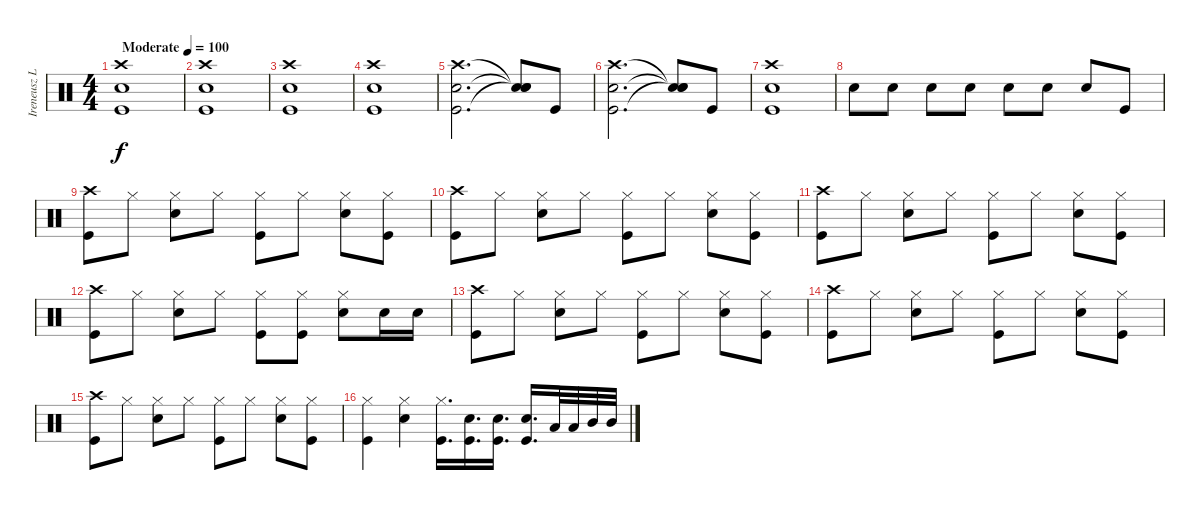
\track ("Ireneusz Loth" "Ireneusz L") {instrument percussion}
\staff {score}
\articulation defaults
\ts (4 4)
\tempo (100 "Moderate")
\clef neutral
\ks c
("Crash high (hit)" "Snare (hit) 2" "Kick (hit)").1{dy f} |
("Crash high (hit)" "Snare (hit) 2" "Kick (hit)").1 |
("Crash high (hit)" "Snare (hit) 2" "Kick (hit)").1 |
("Crash high (hit)" "Snare (hit) 2" "Kick (hit)").1 |
("Crash high (hit)" "Snare (hit) 2" "Kick (hit)").2{d} ("Snare (hit)"{t} "Snare (hit)"{t} "Snare (hit)"{t}).8 "Kick (hit)".8 |
("Crash high (hit)" "Snare (hit) 2" "Kick (hit)").2{d} ("Snare (hit)"{t} "Snare (hit)"{t} "Snare (hit)"{t}).8 "Kick (hit)".8 |
("Crash high (hit)" "Snare (hit) 2" "Kick (hit)").1 |
"Snare (hit) 2".8 "Snare (hit) 2".8 "Snare (hit) 2".8 "Snare (hit) 2".8 "Snare (hit) 2".8 "Snare (hit) 2".8 "Snare (hit) 2".8 "Kick (hit)".8 |
("Crash high (hit)" "Kick (hit)").8 "Hi-Hat (closed)".8 ("Hi-Hat (closed)" "Snare (hit) 2").8 "Hi-Hat (closed)".8 ("Hi-Hat (closed)" "Kick (hit)").8 "Hi-Hat (closed)".8 ("Hi-Hat (closed)" "Snare (hit) 2").8 ("Hi-Hat (closed)" "Kick (hit)").8 |
("Crash high (hit)" "Kick (hit)").8 "Hi-Hat (closed)".8 ("Hi-Hat (closed)" "Snare (hit) 2").8 "Hi-Hat (closed)".8 ("Hi-Hat (closed)" "Kick (hit)").8 "Hi-Hat (closed)".8 ("Hi-Hat (closed)" "Snare (hit) 2").8 ("Hi-Hat (closed)" "Kick (hit)").8 |
("Crash high (hit)" "Kick (hit)").8 "Hi-Hat (closed)".8 ("Hi-Hat (closed)" "Snare (hit) 2").8 "Hi-Hat (closed)".8 ("Hi-Hat (closed)" "Kick (hit)").8 "Hi-Hat (closed)".8 ("Hi-Hat (closed)" "Snare (hit) 2").8 ("Hi-Hat (closed)" "Kick (hit)").8 |
("Crash high (hit)" "Kick (hit)").8 "Hi-Hat (closed)".8 ("Hi-Hat (closed)" "Snare (hit) 2").8 "Hi-Hat (closed)".8 ("Hi-Hat (closed)" "Kick (hit)").8 ("Hi-Hat (closed)" "Kick (hit)").8 ("Hi-Hat (closed)" "Snare (hit) 2").8 "Snare (hit) 2".16 "Snare (hit) 2".16 |
("Crash high (hit)" "Kick (hit)").8 "Hi-Hat (closed)".8 ("Hi-Hat (closed)" "Snare (hit) 2").8 "Hi-Hat (closed)".8 ("Hi-Hat (closed)" "Kick (hit)").8 "Hi-Hat (closed)".8 ("Hi-Hat (closed)" "Snare (hit) 2").8 ("Hi-Hat (closed)" "Kick (hit)").8 |
("Crash high (hit)" "Kick (hit)").8 "Hi-Hat (closed)".8 ("Hi-Hat (closed)" "Snare (hit) 2").8 "Hi-Hat (closed)".8 ("Hi-Hat (closed)" "Kick (hit)").8 "Hi-Hat (closed)".8 ("Hi-Hat (closed)" "Snare (hit) 2").8 ("Hi-Hat (closed)" "Kick (hit)").8 |
("Crash high (hit)" "Kick (hit)").8 "Hi-Hat (closed)".8 ("Hi-Hat (closed)" "Snare (hit) 2").8 "Hi-Hat (closed)".8 ("Hi-Hat (closed)" "Kick (hit)").8 "Hi-Hat (closed)".8 ("Hi-Hat (closed)" "Snare (hit) 2").8 ("Hi-Hat (closed)" "Kick (hit)").8 |
("Hi-Hat (closed)" "Kick (hit)").4 ("Hi-Hat (closed)" "Snare (hit) 2").4 ("Hi-Hat (closed)" "Kick (hit)").16{d} ("Snare (hit) 2" "Kick (hit)").16{d} ("Snare (hit) 2" "Kick (hit)").16{d} ("Snare (hit) 2" "Kick (hit)").16{d} "Low Tom (hit)".32 "Low Tom (hit)".32 "Mid Tom (hit)".32 "Mid Tom (hit)".32
